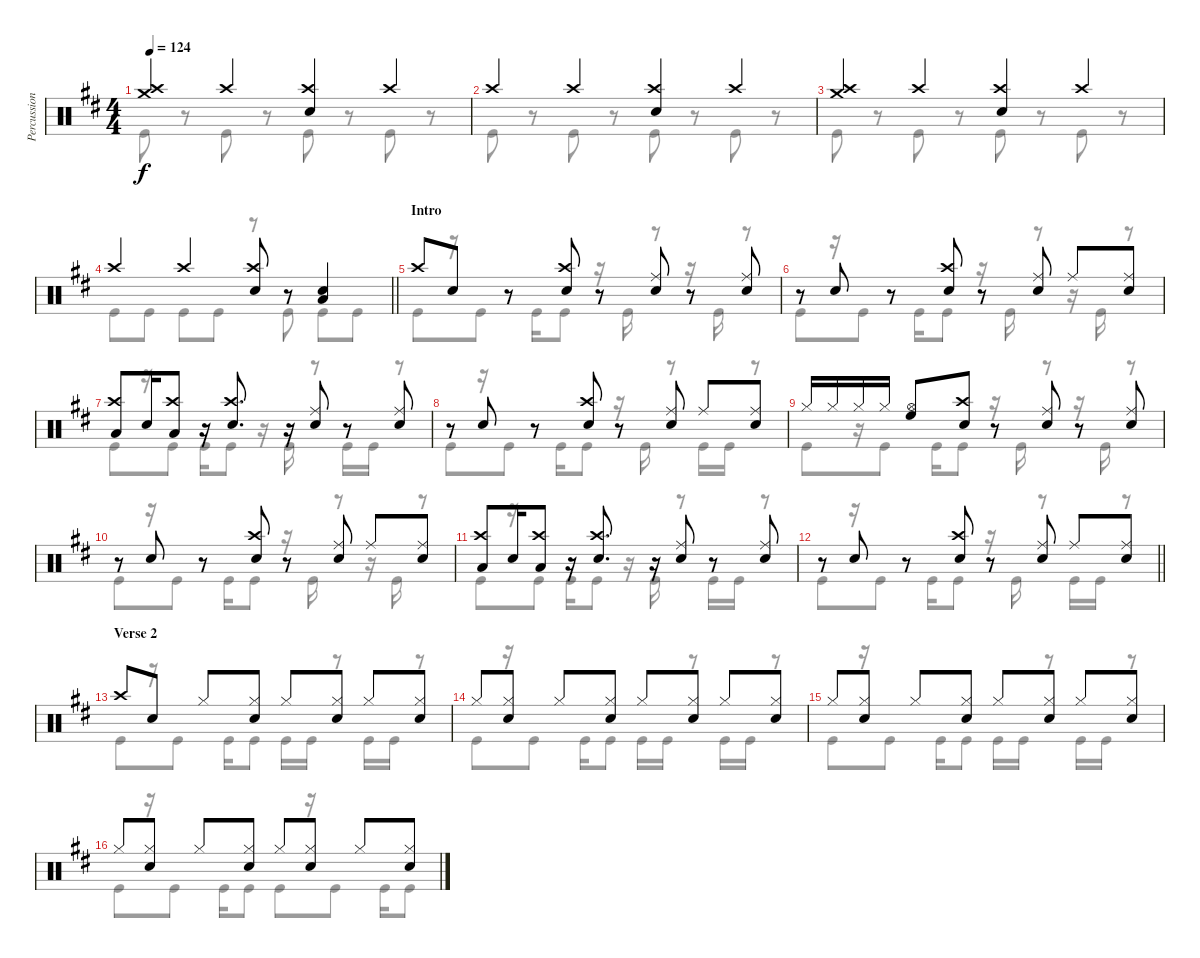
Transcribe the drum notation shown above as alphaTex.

\track ("Percussion" "Percussion") {instrument percussion}
\staff {score}
\articulation defaults
\voice
\ts (4 4)
\tempo 124
\clef neutral
\ks d
("Crash high (hit)" "Crash medium (hit)").4{dy f} "Crash high (hit)".4 ("Crash high (hit)" "Snare (hit) 2").4 "Crash high (hit)".4 |
"Crash high (hit)".4 "Crash high (hit)".4 ("Crash high (hit)" "Snare (hit) 2").4 "Crash high (hit)".4 |
("Crash high (hit)" "Crash medium (hit)").4 "Crash high (hit)".4 ("Crash high (hit)" "Snare (hit) 2").4 "Crash high (hit)".4 |
\barLineRight lightlight "Crash high (hit)".4 "Crash high (hit)".4
("Crash high (hit)" "Snare (hit) 2").8 r.8 ("Low Tom (hit)" "Snare (hit) 2").4 |
\section ("" "Intro")
"Crash high (hit)".8 "Snare (hit) 2".8 r.8 ("Crash high (hit)" "Snare (hit) 2").8 r.8 ("Ride (middle)" "Snare (hit) 2").8 r.8 ("Ride (middle)" "Snare (hit) 2").8 |
r.8 "Snare (hit) 2".8 r.8 ("Crash high (hit)" "Snare (hit) 2").8 r.8 ("Ride (middle)" "Snare (hit) 2").8 "Ride (middle)".8 ("Ride (middle)" "Snare (hit) 2").8 |
("Crash high (hit)" "Low Tom (hit)").8 "Snare (hit) 2".16 ("Crash high (hit)" "Low Tom (hit)").8 r.16 ("Crash high (hit)" "Snare (hit) 2").8{d} r.16 ("Ride (middle)" "Snare (hit) 2").8 r.8 ("Ride (middle)" "Snare (hit) 2").8 |
r.8 "Snare (hit) 2".8 r.8 ("Crash high (hit)" "Snare (hit) 2").8 r.8 ("Ride (middle)" "Snare (hit) 2").8 "Ride (middle)".8 ("Ride (middle)" "Snare (hit) 2").8 |
"Hi-Hat (closed)".16 "Hi-Hat (closed)".16 "Hi-Hat (closed)".16 "Hi-Hat (closed)".16 ("Hi-Hat (open)" "High Floor Tom (hit)").8 ("Crash high (hit)" "Snare (hit) 2").8 r.8 ("Ride (middle)" "Snare (hit) 2").8 r.8 ("Ride (middle)" "Snare (hit) 2").8 |
r.8 "Snare (hit) 2".8 r.8 ("Crash high (hit)" "Snare (hit) 2").8 r.8 ("Ride (middle)" "Snare (hit) 2").8 "Ride (middle)".8 ("Ride (middle)" "Snare (hit) 2").8 |
("Crash high (hit)" "Low Tom (hit)").8 "Snare (hit) 2".16 ("Crash high (hit)" "Low Tom (hit)").8 r.16 ("Crash high (hit)" "Snare (hit) 2").8{d} r.16 ("Ride (middle)" "Snare (hit) 2").8 r.8 ("Ride (middle)" "Snare (hit) 2").8 |
\barLineRight lightlight
r.8 "Snare (hit) 2".8 r.8 ("Crash high (hit)" "Snare (hit) 2").8 r.8 ("Ride (middle)" "Snare (hit) 2").8 "Ride (middle)".8 ("Ride (middle)" "Snare (hit) 2").8 |
\section ("" "Verse 2")
"Crash high (hit)".8 "Snare (hit) 2".8 "Hi-Hat (closed)".8 ("Hi-Hat (closed)" "Snare (hit) 2").8 "Hi-Hat (closed)".8 ("Hi-Hat (closed)" "Snare (hit) 2").8 "Hi-Hat (closed)".8 ("Hi-Hat (closed)" "Snare (hit) 2").8 |
"Hi-Hat (closed)".8 ("Hi-Hat (closed)" "Snare (hit) 2").8 "Hi-Hat (closed)".8 ("Hi-Hat (closed)" "Snare (hit) 2").8 "Hi-Hat (closed)".8 ("Hi-Hat (closed)" "Snare (hit) 2").8 "Hi-Hat (closed)".8 ("Hi-Hat (closed)" "Snare (hit) 2").8 |
"Hi-Hat (closed)".8 ("Hi-Hat (closed)" "Snare (hit) 2").8 "Hi-Hat (closed)".8 ("Hi-Hat (closed)" "Snare (hit) 2").8 "Hi-Hat (closed)".8 ("Hi-Hat (closed)" "Snare (hit) 2").8 "Hi-Hat (closed)".8 ("Hi-Hat (closed)" "Snare (hit) 2").8 |
"Hi-Hat (closed)".8 ("Hi-Hat (closed)" "Snare (hit) 2").8 "Hi-Hat (closed)".8 ("Hi-Hat (closed)" "Snare (hit) 2").8 "Hi-Hat (closed)".8 ("Hi-Hat (closed)" "Snare (hit) 2").8 "Hi-Hat (closed)".8 ("Hi-Hat (closed)" "Snare (hit) 2").8
\voice
\clef neutral
\ottava regular
\simile none
\ks d "Kick (hit)".8{dy f}
r.8 "Kick (hit)".8 r.8 "Kick (hit)".8 r.8 "Kick (hit)".8 r.8 |
"Kick (hit)".8 r.8 "Kick (hit)".8 r.8 "Kick (hit)".8 r.8 "Kick (hit)".8 r.8 |
"Kick (hit)".8 r.8 "Kick (hit)".8 r.8 "Kick (hit)".8 r.8 "Kick (hit)".8 r.8 |
\barLineRight lightlight "Kick (hit)".8 "Kick (hit)".8 "Kick (hit)".8 "Kick (hit)".8
r.8 "Kick (hit)".8 "Kick (hit)".8 "Kick (hit)".8 |
"Kick (hit)".8 r.16 "Kick (hit)".8 "Kick (hit)".16 "Kick (hit)".8 r.16 "Kick (hit)".16 r.8 r.16 "Kick (hit)".16 r.8 |
"Kick (hit)".8 r.16 "Kick (hit)".8 "Kick (hit)".16 "Kick (hit)".8 r.16 "Kick (hit)".16 r.8 r.16 "Kick (hit)".16 r.8 |
"Kick (hit)".8 r.16 "Kick (hit)".8 "Kick (hit)".16 "Kick (hit)".8 r.16 "Kick (hit)".16 r.8 "Kick (hit)".16 "Kick (hit)".16 r.8 |
"Kick (hit)".8 r.16 "Kick (hit)".8 "Kick (hit)".16 "Kick (hit)".8 r.16 "Kick (hit)".16 r.8 "Kick (hit)".16 "Kick (hit)".16 r.8 |
"Kick (hit)".8 r.16 "Kick (hit)".8 "Kick (hit)".16 "Kick (hit)".8 r.16 "Kick (hit)".16 r.8 r.16 "Kick (hit)".16 r.8 |
"Kick (hit)".8 r.16 "Kick (hit)".8 "Kick (hit)".16 "Kick (hit)".8 r.16 "Kick (hit)".16 r.8 r.16 "Kick (hit)".16 r.8 |
"Kick (hit)".8 r.16 "Kick (hit)".8 "Kick (hit)".16 "Kick (hit)".8 r.16 "Kick (hit)".16 r.8 "Kick (hit)".16 "Kick (hit)".16 r.8 |
\barLineRight lightlight "Kick (hit)".8
r.16 "Kick (hit)".8 "Kick (hit)".16 "Kick (hit)".8 r.16 "Kick (hit)".16 r.8 "Kick (hit)".16 "Kick (hit)".16 r.8 |
"Kick (hit)".8 r.16 "Kick (hit)".8 "Kick (hit)".16 "Kick (hit)".8 "Kick (hit)".16 "Kick (hit)".16 r.8 "Kick (hit)".16 "Kick (hit)".16 r.8 |
"Kick (hit)".8 r.16 "Kick (hit)".8 "Kick (hit)".16 "Kick (hit)".8 "Kick (hit)".16 "Kick (hit)".16 r.8 "Kick (hit)".16 "Kick (hit)".16 r.8 |
"Kick (hit)".8 r.16 "Kick (hit)".8 "Kick (hit)".16 "Kick (hit)".8 "Kick (hit)".16 "Kick (hit)".16 r.8 "Kick (hit)".16 "Kick (hit)".16 r.8 |
"Kick (hit)".8 r.16 "Kick (hit)".8 "Kick (hit)".16 "Kick (hit)".8 "Kick (hit)".8 r.16 "Kick (hit)".8 "Kick (hit)".16 "Kick (hit)".8
